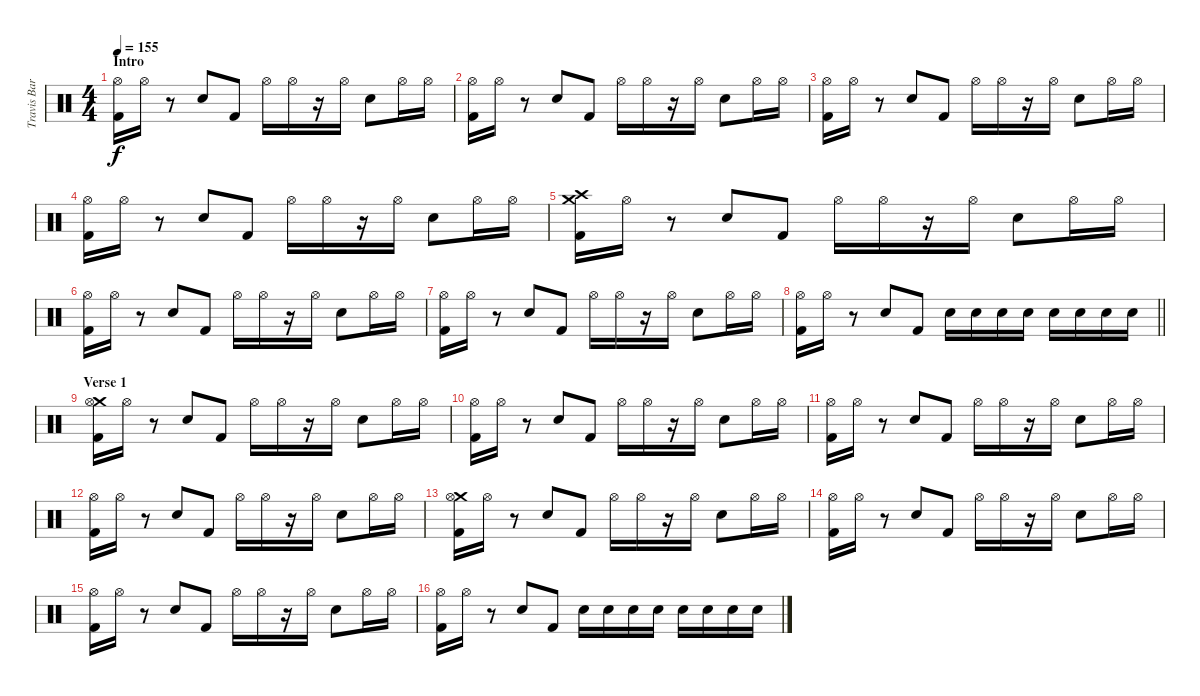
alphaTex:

\track ("Travis Barker Drums" "Travis Bar") {mute instrument percussion}
\staff {score}
\articulation defaults
\ts (4 4)
\section ("" "Intro")
\tempo 155
\clef neutral
\ks c
("Hi-Hat (open)" "Kick (hit) 2").16{dy f} "Hi-Hat (open)".16 r.8 "Electric Snare (hit)".8 "Kick (hit) 2".8 "Hi-Hat (open)".16 "Hi-Hat (open)".16 r.16 "Hi-Hat (open)".16 "Electric Snare (hit)".8 "Hi-Hat (open)".16 "Hi-Hat (open)".16 |
("Hi-Hat (open)" "Kick (hit) 2").16 "Hi-Hat (open)".16 r.8 "Electric Snare (hit)".8 "Kick (hit) 2".8 "Hi-Hat (open)".16 "Hi-Hat (open)".16 r.16 "Hi-Hat (open)".16 "Electric Snare (hit)".8 "Hi-Hat (open)".16 "Hi-Hat (open)".16 |
("Hi-Hat (open)" "Kick (hit) 2").16 "Hi-Hat (open)".16 r.8 "Electric Snare (hit)".8 "Kick (hit) 2".8 "Hi-Hat (open)".16 "Hi-Hat (open)".16 r.16 "Hi-Hat (open)".16 "Electric Snare (hit)".8 "Hi-Hat (open)".16 "Hi-Hat (open)".16 |
("Hi-Hat (open)" "Kick (hit) 2").16 "Hi-Hat (open)".16 r.8 "Electric Snare (hit)".8 "Kick (hit) 2".8 "Hi-Hat (open)".16 "Hi-Hat (open)".16 r.16 "Hi-Hat (open)".16 "Electric Snare (hit)".8 "Hi-Hat (open)".16 "Hi-Hat (open)".16 |
("Crash medium (hit)" "Crash high (hit)" "Kick (hit) 2").16 "Hi-Hat (open)".16 r.8 "Electric Snare (hit)".8 "Kick (hit) 2".8 "Hi-Hat (open)".16 "Hi-Hat (open)".16 r.16 "Hi-Hat (open)".16 "Electric Snare (hit)".8 "Hi-Hat (open)".16 "Hi-Hat (open)".16 |
("Hi-Hat (open)" "Kick (hit) 2").16 "Hi-Hat (open)".16 r.8 "Electric Snare (hit)".8 "Kick (hit) 2".8 "Hi-Hat (open)".16 "Hi-Hat (open)".16 r.16 "Hi-Hat (open)".16 "Electric Snare (hit)".8 "Hi-Hat (open)".16 "Hi-Hat (open)".16 |
("Hi-Hat (open)" "Kick (hit) 2").16 "Hi-Hat (open)".16 r.8 "Electric Snare (hit)".8 "Kick (hit) 2".8 "Hi-Hat (open)".16 "Hi-Hat (open)".16 r.16 "Hi-Hat (open)".16 "Electric Snare (hit)".8 "Hi-Hat (open)".16 "Hi-Hat (open)".16 |
\barLineRight lightlight
("Hi-Hat (open)" "Kick (hit) 2").16 "Hi-Hat (open)".16 r.8 "Electric Snare (hit)".8 "Kick (hit) 2".8 "Electric Snare (hit)".16 "Electric Snare (hit)".16 "Electric Snare (hit)".16 "Electric Snare (hit)".16 "Electric Snare (hit)".16 "Electric Snare (hit)".16 "Electric Snare (hit)".16 "Electric Snare (hit)".16 |
\section ("" "Verse 1")
("Crash medium (hit)" "Hi-Hat (open)" "Kick (hit) 2").16 "Hi-Hat (open)".16 r.8 "Electric Snare (hit)".8 "Kick (hit) 2".8 "Hi-Hat (open)".16 "Hi-Hat (open)".16 r.16 "Hi-Hat (open)".16 "Electric Snare (hit)".8 "Hi-Hat (open)".16 "Hi-Hat (open)".16 |
("Hi-Hat (open)" "Kick (hit) 2").16 "Hi-Hat (open)".16 r.8 "Electric Snare (hit)".8 "Kick (hit) 2".8 "Hi-Hat (open)".16 "Hi-Hat (open)".16 r.16 "Hi-Hat (open)".16 "Electric Snare (hit)".8 "Hi-Hat (open)".16 "Hi-Hat (open)".16 |
("Hi-Hat (open)" "Kick (hit) 2").16 "Hi-Hat (open)".16 r.8 "Electric Snare (hit)".8 "Kick (hit) 2".8 "Hi-Hat (open)".16 "Hi-Hat (open)".16 r.16 "Hi-Hat (open)".16 "Electric Snare (hit)".8 "Hi-Hat (open)".16 "Hi-Hat (open)".16 |
("Hi-Hat (open)" "Kick (hit) 2").16 "Hi-Hat (open)".16 r.8 "Electric Snare (hit)".8 "Kick (hit) 2".8 "Hi-Hat (open)".16 "Hi-Hat (open)".16 r.16 "Hi-Hat (open)".16 "Electric Snare (hit)".8 "Hi-Hat (open)".16 "Hi-Hat (open)".16 |
("Crash medium (hit)" "Hi-Hat (open)" "Kick (hit) 2").16 "Hi-Hat (open)".16 r.8 "Electric Snare (hit)".8 "Kick (hit) 2".8 "Hi-Hat (open)".16 "Hi-Hat (open)".16 r.16 "Hi-Hat (open)".16 "Electric Snare (hit)".8 "Hi-Hat (open)".16 "Hi-Hat (open)".16 |
("Hi-Hat (open)" "Kick (hit) 2").16 "Hi-Hat (open)".16 r.8 "Electric Snare (hit)".8 "Kick (hit) 2".8 "Hi-Hat (open)".16 "Hi-Hat (open)".16 r.16 "Hi-Hat (open)".16 "Electric Snare (hit)".8 "Hi-Hat (open)".16 "Hi-Hat (open)".16 |
("Hi-Hat (open)" "Kick (hit) 2").16 "Hi-Hat (open)".16 r.8 "Electric Snare (hit)".8 "Kick (hit) 2".8 "Hi-Hat (open)".16 "Hi-Hat (open)".16 r.16 "Hi-Hat (open)".16 "Electric Snare (hit)".8 "Hi-Hat (open)".16 "Hi-Hat (open)".16 |
("Hi-Hat (open)" "Kick (hit) 2").16 "Hi-Hat (open)".16 r.8 "Electric Snare (hit)".8 "Kick (hit) 2".8 "Electric Snare (hit)".16 "Electric Snare (hit)".16 "Electric Snare (hit)".16 "Electric Snare (hit)".16 "Electric Snare (hit)".16 "Electric Snare (hit)".16 "Electric Snare (hit)".16 "Electric Snare (hit)".16
